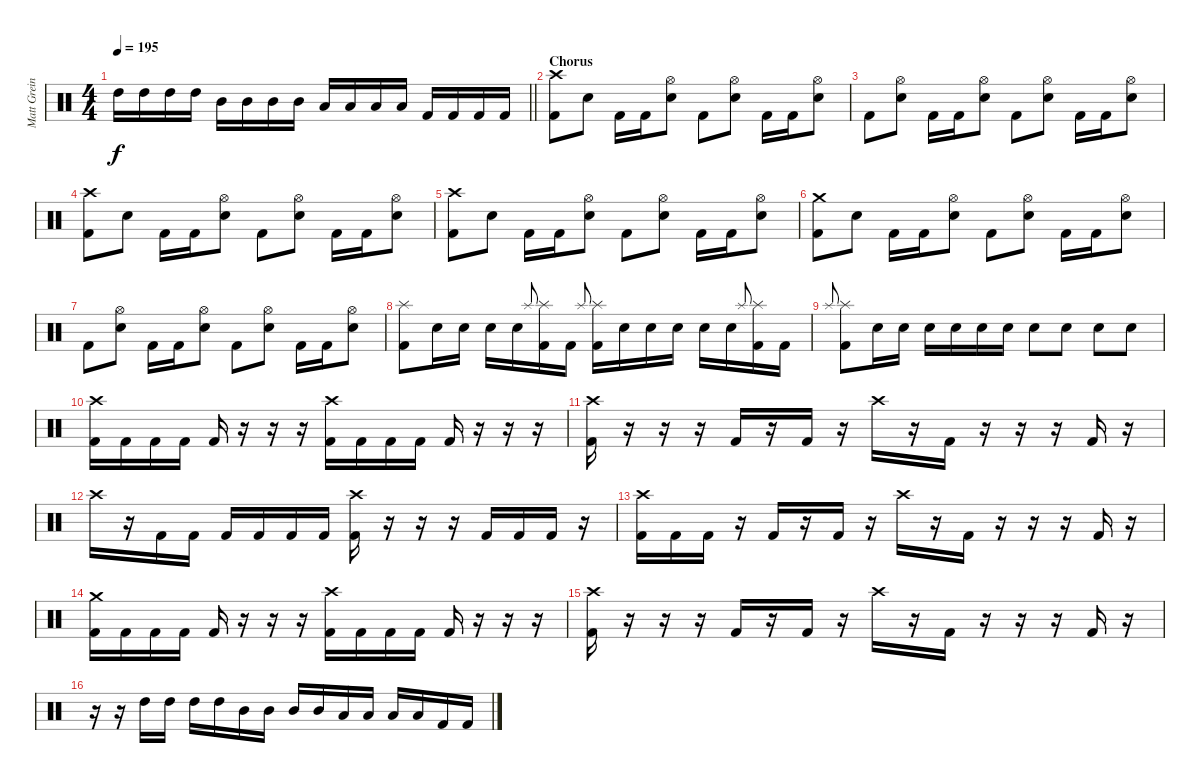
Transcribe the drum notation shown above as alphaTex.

\track ("Matt Greiner" "Matt Grein") {instrument percussion}
\staff {score}
\articulation defaults
\ts (4 4)
\section ("" "")
\tempo 195
\clef neutral
\barLineRight lightlight
\ks c "High Tom (hit)".16{dy f} "High Tom (hit)".16 "High Tom (hit)".16 "High Tom (hit)".16 "Mid Tom (hit)".16 "Mid Tom (hit)".16 "Mid Tom (hit)".16 "Mid Tom (hit)".16 "Low Tom (hit)".16 "Low Tom (hit)".16 "Low Tom (hit)".16 "Low Tom (hit)".16 "Kick (hit) 2".16 "Kick (hit) 2".16 "Kick (hit) 2".16 "Kick (hit) 2".16
|
\section ("" "Chorus")
("Crash high (hit)" "Kick (hit) 2").8 "Electric Snare (hit)".8 "Kick (hit) 2".16 "Kick (hit) 2".16 ("Hi-Hat (open)" "Electric Snare (hit)").8 "Kick (hit) 2".8 ("Hi-Hat (open)" "Electric Snare (hit)").8 "Kick (hit) 2".16 "Kick (hit) 2".16 ("Hi-Hat (open)" "Electric Snare (hit)").8 |
"Kick (hit) 2".8 ("Hi-Hat (open)" "Electric Snare (hit)").8 "Kick (hit) 2".16 "Kick (hit) 2".16 ("Hi-Hat (open)" "Electric Snare (hit)").8 "Kick (hit) 2".8 ("Hi-Hat (open)" "Electric Snare (hit)").8 "Kick (hit) 2".16 "Kick (hit) 2".16 ("Hi-Hat (open)" "Electric Snare (hit)").8 |
("Crash high (hit)" "Kick (hit) 2").8 "Electric Snare (hit)".8 "Kick (hit) 2".16 "Kick (hit) 2".16 ("Hi-Hat (open)" "Electric Snare (hit)").8 "Kick (hit) 2".8 ("Hi-Hat (open)" "Electric Snare (hit)").8 "Kick (hit) 2".16 "Kick (hit) 2".16 ("Hi-Hat (open)" "Electric Snare (hit)").8 |
("Crash high (hit)" "Kick (hit) 2").8 "Electric Snare (hit)".8 "Kick (hit) 2".16 "Kick (hit) 2".16 ("Hi-Hat (open)" "Electric Snare (hit)").8 "Kick (hit) 2".8 ("Hi-Hat (open)" "Electric Snare (hit)").8 "Kick (hit) 2".16 "Kick (hit) 2".16 ("Hi-Hat (open)" "Electric Snare (hit)").8 |
("Crash medium (hit)" "Kick (hit) 2").8 "Electric Snare (hit)".8 "Kick (hit) 2".16 "Kick (hit) 2".16 ("Hi-Hat (open)" "Electric Snare (hit)").8 "Kick (hit) 2".8 ("Hi-Hat (open)" "Electric Snare (hit)").8 "Kick (hit) 2".16 "Kick (hit) 2".16 ("Hi-Hat (open)" "Electric Snare (hit)").8 |
"Kick (hit) 2".8 ("Hi-Hat (open)" "Electric Snare (hit)").8 "Kick (hit) 2".16 "Kick (hit) 2".16 ("Hi-Hat (open)" "Electric Snare (hit)").8 "Kick (hit) 2".8 ("Hi-Hat (open)" "Electric Snare (hit)").8 "Kick (hit) 2".16 "Kick (hit) 2".16 ("Hi-Hat (open)" "Electric Snare (hit)").8 |
("Splash (hit)" "Kick (hit) 2").8 "Electric Snare (hit)".16 "Electric Snare (hit)".16 "Electric Snare (hit)".16 "Electric Snare (hit)".16 "Splash (hit)".8{gr onbeat} ("Splash (hit)" "Kick (hit) 2").16 "Kick (hit) 2".16 "Splash (hit)".8{gr onbeat} ("Splash (hit)" "Kick (hit) 2").16 "Electric Snare (hit)".16 "Electric Snare (hit)".16 "Electric Snare (hit)".16 "Electric Snare (hit)".16 "Electric Snare (hit)".16 "Splash (hit)".8{gr onbeat} ("Splash (hit)" "Kick (hit) 2").16 "Kick (hit) 2".16 |
"Splash (hit)".8{gr onbeat} ("Splash (hit)" "Kick (hit) 2").8 "Electric Snare (hit)".16 "Electric Snare (hit)".16 "Electric Snare (hit)".16 "Electric Snare (hit)".16 "Electric Snare (hit)".16 "Electric Snare (hit)".16 "Electric Snare (hit)".8 "Electric Snare (hit)".8 "Electric Snare (hit)".8 "Electric Snare (hit)".8 |
("Crash high (hit)" "Kick (hit) 2").16 "Kick (hit) 2".16 "Kick (hit) 2".16 "Kick (hit) 2".16 "Kick (hit) 2".16 r.16 r.16 r.16 ("Crash high (hit)" "Kick (hit) 2").16 "Kick (hit) 2".16 "Kick (hit) 2".16 "Kick (hit) 2".16 "Kick (hit) 2".16 r.16 r.16 r.16 |
("Crash high (hit)" "Kick (hit) 2").16 r.16 r.16 r.16 "Kick (hit) 2".16 r.16 "Kick (hit) 2".16 r.16 "Crash high (hit)".16 r.16 "Kick (hit) 2".16 r.16 r.16 r.16 "Kick (hit) 2".16 r.16 |
"Crash high (hit)".16 r.16 "Kick (hit) 2".16 "Kick (hit) 2".16 "Kick (hit) 2".16 "Kick (hit) 2".16 "Kick (hit) 2".16 "Kick (hit) 2".16 ("Crash high (hit)" "Kick (hit) 2").16 r.16 r.16 r.16 "Kick (hit) 2".16 "Kick (hit) 2".16 "Kick (hit) 2".16 r.16 |
("Crash high (hit)" "Kick (hit) 2").16 "Kick (hit) 2".16 "Kick (hit) 2".16 r.16 "Kick (hit) 2".16 r.16 "Kick (hit) 2".16 r.16 "Crash high (hit)".16 r.16 "Kick (hit) 2".16 r.16 r.16 r.16 "Kick (hit) 2".16 r.16 |
("Crash medium (hit)" "Kick (hit) 2").16 "Kick (hit) 2".16 "Kick (hit) 2".16 "Kick (hit) 2".16 "Kick (hit) 2".16 r.16 r.16 r.16 ("Crash high (hit)" "Kick (hit) 2").16 "Kick (hit) 2".16 "Kick (hit) 2".16 "Kick (hit) 2".16 "Kick (hit) 2".16 r.16 r.16 r.16 |
("Crash high (hit)" "Kick (hit) 2").16 r.16 r.16 r.16 "Kick (hit) 2".16 r.16 "Kick (hit) 2".16 r.16 "Crash high (hit)".16 r.16 "Kick (hit) 2".16 r.16 r.16 r.16 "Kick (hit) 2".16 r.16 |
r.16 r.16 "High Tom (hit)".16 "High Tom (hit)".16 "High Tom (hit)".16 "High Tom (hit)".16 "Mid Tom (hit)".16 "Mid Tom (hit)".16 "Mid Tom (hit)".16 "Mid Tom (hit)".16 "Low Tom (hit)".16 "Low Tom (hit)".16 "Low Tom (hit)".16 "Low Tom (hit)".16 "Kick (hit) 2".16 "Kick (hit) 2".16
